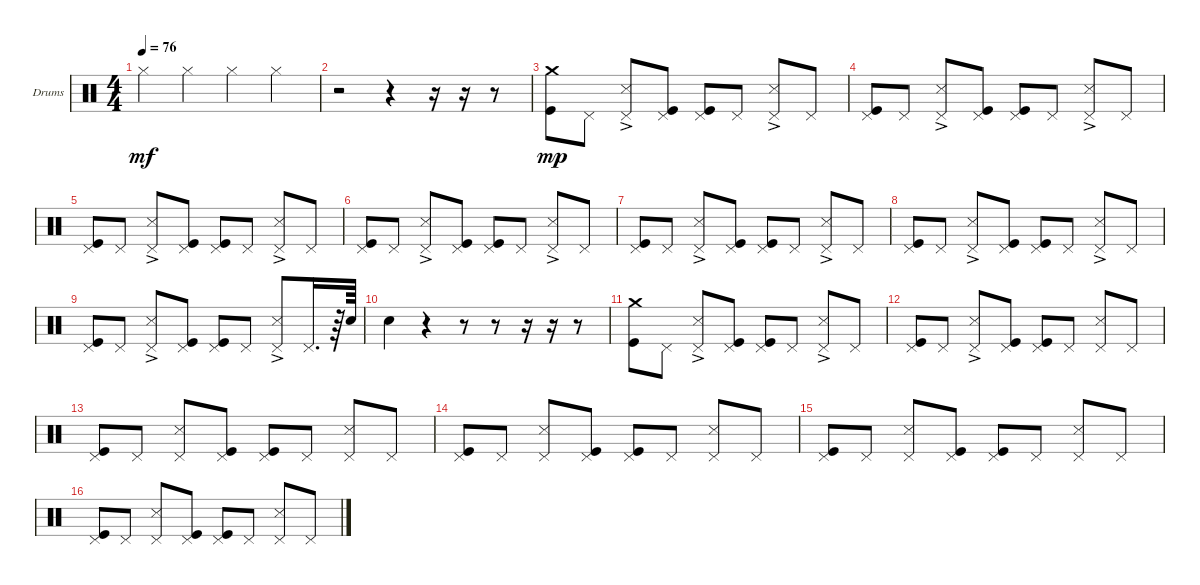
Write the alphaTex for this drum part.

\bracketExtendMode groupsimilarinstruments
\firstSystemTrackNameOrientation horizontal
\otherSystemsTrackNameOrientation horizontal
\track ("Drumkit" "Drums") {instrument percussion}
\staff {score}
\articulation defaults
\ts (4 4)
\tempo 76
\clef neutral
\ks c "Hi-Hat (closed)".4{dy mf} "Hi-Hat (closed)".4 "Hi-Hat (closed)".4 "Hi-Hat (closed)".4
|
r.2 r.4 r.16 r.16 r.8 |
("Kick (hit)" "Crash medium (hit)").8{dy mp} "Pedal Hi-Hat (hit)".8 ("Snare (side stick) 3"{ac} "Pedal Hi-Hat (hit)").8 ("Kick (hit)" "Pedal Hi-Hat (hit)").8 ("Kick (hit)" "Pedal Hi-Hat (hit)").8 "Pedal Hi-Hat (hit)".8 ("Snare (side stick) 3"{ac} "Pedal Hi-Hat (hit)").8 "Pedal Hi-Hat (hit)".8 |
("Kick (hit)" "Pedal Hi-Hat (hit)").8 "Pedal Hi-Hat (hit)".8 ("Snare (side stick) 3"{ac} "Pedal Hi-Hat (hit)").8 ("Kick (hit)" "Pedal Hi-Hat (hit)").8 ("Kick (hit)" "Pedal Hi-Hat (hit)").8 "Pedal Hi-Hat (hit)".8 ("Snare (side stick) 3"{ac} "Pedal Hi-Hat (hit)").8 "Pedal Hi-Hat (hit)".8 |
("Pedal Hi-Hat (hit)" "Kick (hit)").8 "Pedal Hi-Hat (hit)".8 ("Snare (side stick) 3"{ac} "Pedal Hi-Hat (hit)").8 ("Kick (hit)" "Pedal Hi-Hat (hit)").8 ("Kick (hit)" "Pedal Hi-Hat (hit)").8 "Pedal Hi-Hat (hit)".8 ("Snare (side stick) 3"{ac} "Pedal Hi-Hat (hit)").8 "Pedal Hi-Hat (hit)".8 |
("Pedal Hi-Hat (hit)" "Kick (hit)").8 "Pedal Hi-Hat (hit)".8 ("Snare (side stick) 3"{ac} "Pedal Hi-Hat (hit)").8 ("Kick (hit)" "Pedal Hi-Hat (hit)").8 ("Kick (hit)" "Pedal Hi-Hat (hit)").8 "Pedal Hi-Hat (hit)".8 ("Snare (side stick) 3"{ac} "Pedal Hi-Hat (hit)").8 "Pedal Hi-Hat (hit)".8 |
("Pedal Hi-Hat (hit)" "Kick (hit)").8 "Pedal Hi-Hat (hit)".8 ("Snare (side stick) 3"{ac} "Pedal Hi-Hat (hit)").8 ("Kick (hit)" "Pedal Hi-Hat (hit)").8 ("Kick (hit)" "Pedal Hi-Hat (hit)").8 "Pedal Hi-Hat (hit)".8 ("Snare (side stick) 3"{ac} "Pedal Hi-Hat (hit)").8 "Pedal Hi-Hat (hit)".8 |
("Pedal Hi-Hat (hit)" "Kick (hit)").8 "Pedal Hi-Hat (hit)".8 ("Snare (side stick) 3"{ac} "Pedal Hi-Hat (hit)").8 ("Kick (hit)" "Pedal Hi-Hat (hit)").8 ("Kick (hit)" "Pedal Hi-Hat (hit)").8 "Pedal Hi-Hat (hit)".8 ("Snare (side stick) 3"{ac} "Pedal Hi-Hat (hit)").8 "Pedal Hi-Hat (hit)".8 |
("Pedal Hi-Hat (hit)" "Kick (hit)").8 "Pedal Hi-Hat (hit)".8 ("Snare (side stick) 3"{ac} "Pedal Hi-Hat (hit)").8 ("Kick (hit)" "Pedal Hi-Hat (hit)").8 ("Kick (hit)" "Pedal Hi-Hat (hit)").8 "Pedal Hi-Hat (hit)".8 ("Snare (side stick) 3"{ac} "Pedal Hi-Hat (hit)").8 "Pedal Hi-Hat (hit)".16{d} r.64 "Snare (hit) 2".64 |
"Snare (hit) 2".4 r.4 r.8 r.8 r.16 r.16 r.8 |
("Kick (hit)" "Crash medium (hit)").8 "Pedal Hi-Hat (hit)".8 ("Snare (side stick) 3"{ac} "Pedal Hi-Hat (hit)").8 ("Kick (hit)" "Pedal Hi-Hat (hit)").8 ("Kick (hit)" "Pedal Hi-Hat (hit)").8 "Pedal Hi-Hat (hit)".8 ("Snare (side stick) 3"{ac} "Pedal Hi-Hat (hit)").8 "Pedal Hi-Hat (hit)".8 |
("Kick (hit)" "Pedal Hi-Hat (hit)").8 "Pedal Hi-Hat (hit)".8 ("Snare (side stick) 3"{ac} "Pedal Hi-Hat (hit)").8 ("Kick (hit)" "Pedal Hi-Hat (hit)").8 ("Kick (hit)" "Pedal Hi-Hat (hit)").8 "Pedal Hi-Hat (hit)".8 ("Snare (side stick) 3" "Pedal Hi-Hat (hit)").8 "Pedal Hi-Hat (hit)".8 |
("Pedal Hi-Hat (hit)" "Kick (hit)").8 "Pedal Hi-Hat (hit)".8 ("Snare (side stick) 3" "Pedal Hi-Hat (hit)").8 ("Kick (hit)" "Pedal Hi-Hat (hit)").8 ("Kick (hit)" "Pedal Hi-Hat (hit)").8 "Pedal Hi-Hat (hit)".8 ("Snare (side stick) 3" "Pedal Hi-Hat (hit)").8 "Pedal Hi-Hat (hit)".8 |
("Pedal Hi-Hat (hit)" "Kick (hit)").8 "Pedal Hi-Hat (hit)".8 ("Snare (side stick) 3" "Pedal Hi-Hat (hit)").8 ("Kick (hit)" "Pedal Hi-Hat (hit)").8 ("Kick (hit)" "Pedal Hi-Hat (hit)").8 "Pedal Hi-Hat (hit)".8 ("Snare (side stick) 3" "Pedal Hi-Hat (hit)").8 "Pedal Hi-Hat (hit)".8 |
("Pedal Hi-Hat (hit)" "Kick (hit)").8 "Pedal Hi-Hat (hit)".8 ("Snare (side stick) 3" "Pedal Hi-Hat (hit)").8 ("Kick (hit)" "Pedal Hi-Hat (hit)").8 ("Kick (hit)" "Pedal Hi-Hat (hit)").8 "Pedal Hi-Hat (hit)".8 ("Snare (side stick) 3" "Pedal Hi-Hat (hit)").8 "Pedal Hi-Hat (hit)".8 |
("Pedal Hi-Hat (hit)" "Kick (hit)").8 "Pedal Hi-Hat (hit)".8 ("Snare (side stick) 3" "Pedal Hi-Hat (hit)").8 ("Kick (hit)" "Pedal Hi-Hat (hit)").8 ("Kick (hit)" "Pedal Hi-Hat (hit)").8 "Pedal Hi-Hat (hit)".8 ("Snare (side stick) 3" "Pedal Hi-Hat (hit)").8 "Pedal Hi-Hat (hit)".8
